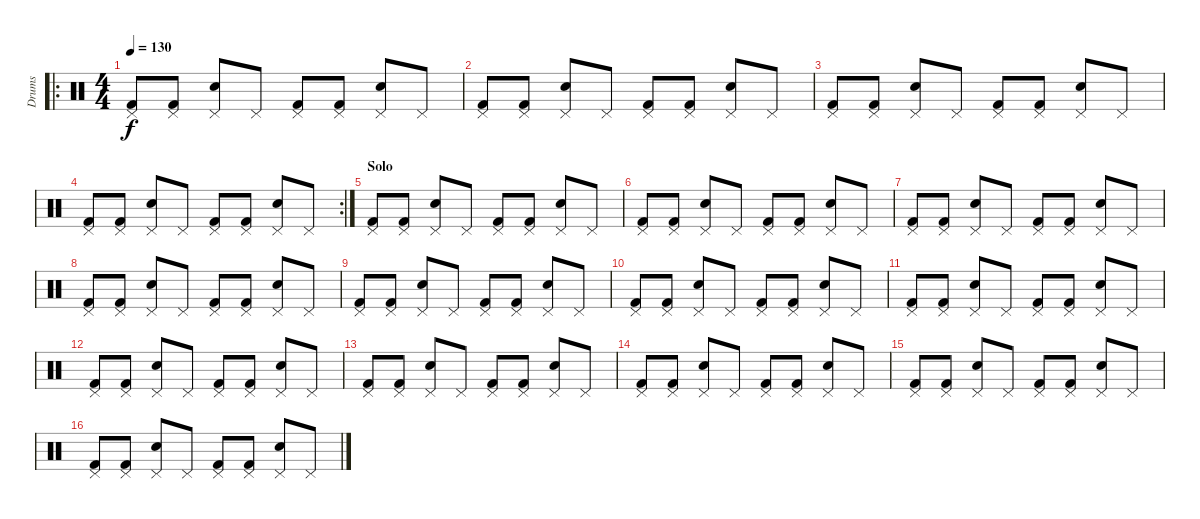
\track ("Drums" "Drums") {instrument percussion}
\staff {score}
\articulation defaults
\ro
\ts (4 4)
\tempo 130
\clef neutral
\ks c
("Pedal Hi-Hat (hit)" "Kick (hit) 2").8{dy f} ("Pedal Hi-Hat (hit)" "Kick (hit) 2").8 ("Pedal Hi-Hat (hit)" "Snare (hit) 2").8 "Pedal Hi-Hat (hit)".8 ("Pedal Hi-Hat (hit)" "Kick (hit) 2").8 ("Pedal Hi-Hat (hit)" "Kick (hit) 2").8 ("Pedal Hi-Hat (hit)" "Snare (hit) 2").8 "Pedal Hi-Hat (hit)".8 |
("Pedal Hi-Hat (hit)" "Kick (hit) 2").8 ("Pedal Hi-Hat (hit)" "Kick (hit) 2").8 ("Pedal Hi-Hat (hit)" "Snare (hit) 2").8 "Pedal Hi-Hat (hit)".8 ("Pedal Hi-Hat (hit)" "Kick (hit) 2").8 ("Pedal Hi-Hat (hit)" "Kick (hit) 2").8 ("Pedal Hi-Hat (hit)" "Snare (hit) 2").8 "Pedal Hi-Hat (hit)".8 |
("Pedal Hi-Hat (hit)" "Kick (hit) 2").8 ("Pedal Hi-Hat (hit)" "Kick (hit) 2").8 ("Pedal Hi-Hat (hit)" "Snare (hit) 2").8 "Pedal Hi-Hat (hit)".8 ("Pedal Hi-Hat (hit)" "Kick (hit) 2").8 ("Pedal Hi-Hat (hit)" "Kick (hit) 2").8 ("Pedal Hi-Hat (hit)" "Snare (hit) 2").8 "Pedal Hi-Hat (hit)".8 |
\rc 2
("Pedal Hi-Hat (hit)" "Kick (hit) 2").8 ("Pedal Hi-Hat (hit)" "Kick (hit) 2").8 ("Pedal Hi-Hat (hit)" "Snare (hit) 2").8 "Pedal Hi-Hat (hit)".8 ("Pedal Hi-Hat (hit)" "Kick (hit) 2").8 ("Pedal Hi-Hat (hit)" "Kick (hit) 2").8 ("Pedal Hi-Hat (hit)" "Snare (hit) 2").8 "Pedal Hi-Hat (hit)".8 |
\section ("" "Solo")
("Pedal Hi-Hat (hit)" "Kick (hit) 2").8 ("Pedal Hi-Hat (hit)" "Kick (hit) 2").8 ("Pedal Hi-Hat (hit)" "Snare (hit) 2").8 "Pedal Hi-Hat (hit)".8 ("Pedal Hi-Hat (hit)" "Kick (hit) 2").8 ("Pedal Hi-Hat (hit)" "Kick (hit) 2").8 ("Pedal Hi-Hat (hit)" "Snare (hit) 2").8 "Pedal Hi-Hat (hit)".8 |
("Pedal Hi-Hat (hit)" "Kick (hit) 2").8 ("Pedal Hi-Hat (hit)" "Kick (hit) 2").8 ("Pedal Hi-Hat (hit)" "Snare (hit) 2").8 "Pedal Hi-Hat (hit)".8 ("Pedal Hi-Hat (hit)" "Kick (hit) 2").8 ("Pedal Hi-Hat (hit)" "Kick (hit) 2").8 ("Pedal Hi-Hat (hit)" "Snare (hit) 2").8 "Pedal Hi-Hat (hit)".8 |
("Pedal Hi-Hat (hit)" "Kick (hit) 2").8 ("Pedal Hi-Hat (hit)" "Kick (hit) 2").8 ("Pedal Hi-Hat (hit)" "Snare (hit) 2").8 "Pedal Hi-Hat (hit)".8 ("Pedal Hi-Hat (hit)" "Kick (hit) 2").8 ("Pedal Hi-Hat (hit)" "Kick (hit) 2").8 ("Pedal Hi-Hat (hit)" "Snare (hit) 2").8 "Pedal Hi-Hat (hit)".8 |
("Pedal Hi-Hat (hit)" "Kick (hit) 2").8 ("Pedal Hi-Hat (hit)" "Kick (hit) 2").8 ("Pedal Hi-Hat (hit)" "Snare (hit) 2").8 "Pedal Hi-Hat (hit)".8 ("Pedal Hi-Hat (hit)" "Kick (hit) 2").8 ("Pedal Hi-Hat (hit)" "Kick (hit) 2").8 ("Pedal Hi-Hat (hit)" "Snare (hit) 2").8 "Pedal Hi-Hat (hit)".8 |
("Pedal Hi-Hat (hit)" "Kick (hit) 2").8 ("Pedal Hi-Hat (hit)" "Kick (hit) 2").8 ("Pedal Hi-Hat (hit)" "Snare (hit) 2").8 "Pedal Hi-Hat (hit)".8 ("Pedal Hi-Hat (hit)" "Kick (hit) 2").8 ("Pedal Hi-Hat (hit)" "Kick (hit) 2").8 ("Pedal Hi-Hat (hit)" "Snare (hit) 2").8 "Pedal Hi-Hat (hit)".8 |
("Pedal Hi-Hat (hit)" "Kick (hit) 2").8 ("Pedal Hi-Hat (hit)" "Kick (hit) 2").8 ("Pedal Hi-Hat (hit)" "Snare (hit) 2").8 "Pedal Hi-Hat (hit)".8 ("Pedal Hi-Hat (hit)" "Kick (hit) 2").8 ("Pedal Hi-Hat (hit)" "Kick (hit) 2").8 ("Pedal Hi-Hat (hit)" "Snare (hit) 2").8 "Pedal Hi-Hat (hit)".8 |
("Pedal Hi-Hat (hit)" "Kick (hit) 2").8 ("Pedal Hi-Hat (hit)" "Kick (hit) 2").8 ("Pedal Hi-Hat (hit)" "Snare (hit) 2").8 "Pedal Hi-Hat (hit)".8 ("Pedal Hi-Hat (hit)" "Kick (hit) 2").8 ("Pedal Hi-Hat (hit)" "Kick (hit) 2").8 ("Pedal Hi-Hat (hit)" "Snare (hit) 2").8 "Pedal Hi-Hat (hit)".8 |
("Pedal Hi-Hat (hit)" "Kick (hit) 2").8 ("Pedal Hi-Hat (hit)" "Kick (hit) 2").8 ("Pedal Hi-Hat (hit)" "Snare (hit) 2").8 "Pedal Hi-Hat (hit)".8 ("Pedal Hi-Hat (hit)" "Kick (hit) 2").8 ("Pedal Hi-Hat (hit)" "Kick (hit) 2").8 ("Pedal Hi-Hat (hit)" "Snare (hit) 2").8 "Pedal Hi-Hat (hit)".8 |
("Pedal Hi-Hat (hit)" "Kick (hit) 2").8 ("Pedal Hi-Hat (hit)" "Kick (hit) 2").8 ("Pedal Hi-Hat (hit)" "Snare (hit) 2").8 "Pedal Hi-Hat (hit)".8 ("Pedal Hi-Hat (hit)" "Kick (hit) 2").8 ("Pedal Hi-Hat (hit)" "Kick (hit) 2").8 ("Pedal Hi-Hat (hit)" "Snare (hit) 2").8 "Pedal Hi-Hat (hit)".8 |
("Pedal Hi-Hat (hit)" "Kick (hit) 2").8 ("Pedal Hi-Hat (hit)" "Kick (hit) 2").8 ("Pedal Hi-Hat (hit)" "Snare (hit) 2").8 "Pedal Hi-Hat (hit)".8 ("Pedal Hi-Hat (hit)" "Kick (hit) 2").8 ("Pedal Hi-Hat (hit)" "Kick (hit) 2").8 ("Pedal Hi-Hat (hit)" "Snare (hit) 2").8 "Pedal Hi-Hat (hit)".8 |
("Pedal Hi-Hat (hit)" "Kick (hit) 2").8 ("Pedal Hi-Hat (hit)" "Kick (hit) 2").8 ("Pedal Hi-Hat (hit)" "Snare (hit) 2").8 "Pedal Hi-Hat (hit)".8 ("Pedal Hi-Hat (hit)" "Kick (hit) 2").8 ("Pedal Hi-Hat (hit)" "Kick (hit) 2").8 ("Pedal Hi-Hat (hit)" "Snare (hit) 2").8 "Pedal Hi-Hat (hit)".8 |
("Pedal Hi-Hat (hit)" "Kick (hit) 2").8 ("Pedal Hi-Hat (hit)" "Kick (hit) 2").8 ("Pedal Hi-Hat (hit)" "Snare (hit) 2").8 "Pedal Hi-Hat (hit)".8 ("Pedal Hi-Hat (hit)" "Kick (hit) 2").8 ("Pedal Hi-Hat (hit)" "Kick (hit) 2").8 ("Pedal Hi-Hat (hit)" "Snare (hit) 2").8 "Pedal Hi-Hat (hit)".8
